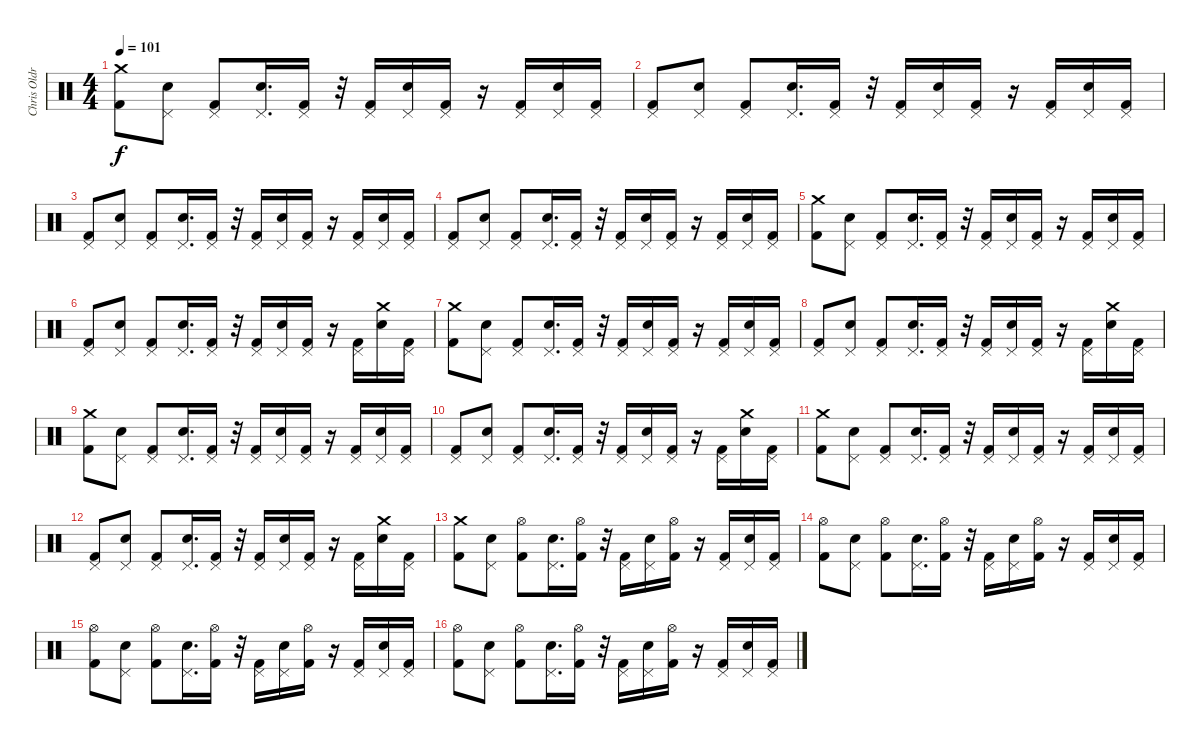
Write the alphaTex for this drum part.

\track ("Chris Oldroyd" "Chris Oldr") {instrument percussion}
\staff {score}
\articulation defaults
\ts (4 4)
\tempo 101
\clef neutral
\ks c
("Crash medium (hit)" "Kick (hit) 2").8{dy f} ("Pedal Hi-Hat (hit)" "Snare (hit) 2").8 ("Pedal Hi-Hat (hit)" "Kick (hit) 2").8 ("Pedal Hi-Hat (hit)" "Snare (hit) 2").16{d} ("Pedal Hi-Hat (hit)" "Kick (hit) 2").16 r.32 ("Pedal Hi-Hat (hit)" "Kick (hit) 2").16 ("Pedal Hi-Hat (hit)" "Snare (hit) 2").16 ("Pedal Hi-Hat (hit)" "Kick (hit) 2").16 r.16 ("Pedal Hi-Hat (hit)" "Kick (hit) 2").16 ("Pedal Hi-Hat (hit)" "Snare (hit) 2").16 ("Pedal Hi-Hat (hit)" "Kick (hit) 2").16 |
("Pedal Hi-Hat (hit)" "Kick (hit) 2").8 ("Pedal Hi-Hat (hit)" "Snare (hit) 2").8 ("Pedal Hi-Hat (hit)" "Kick (hit) 2").8 ("Pedal Hi-Hat (hit)" "Snare (hit) 2").16{d} ("Pedal Hi-Hat (hit)" "Kick (hit) 2").16 r.32 ("Pedal Hi-Hat (hit)" "Kick (hit) 2").16 ("Pedal Hi-Hat (hit)" "Snare (hit) 2").16 ("Pedal Hi-Hat (hit)" "Kick (hit) 2").16 r.16 ("Pedal Hi-Hat (hit)" "Kick (hit) 2").16 ("Pedal Hi-Hat (hit)" "Snare (hit) 2").16 ("Pedal Hi-Hat (hit)" "Kick (hit) 2").16 |
("Pedal Hi-Hat (hit)" "Kick (hit) 2").8 ("Pedal Hi-Hat (hit)" "Snare (hit) 2").8 ("Pedal Hi-Hat (hit)" "Kick (hit) 2").8 ("Pedal Hi-Hat (hit)" "Snare (hit) 2").16{d} ("Pedal Hi-Hat (hit)" "Kick (hit) 2").16 r.32 ("Pedal Hi-Hat (hit)" "Kick (hit) 2").16 ("Pedal Hi-Hat (hit)" "Snare (hit) 2").16 ("Pedal Hi-Hat (hit)" "Kick (hit) 2").16 r.16 ("Pedal Hi-Hat (hit)" "Kick (hit) 2").16 ("Pedal Hi-Hat (hit)" "Snare (hit) 2").16 ("Pedal Hi-Hat (hit)" "Kick (hit) 2").16 |
("Pedal Hi-Hat (hit)" "Kick (hit) 2").8 ("Pedal Hi-Hat (hit)" "Snare (hit) 2").8 ("Pedal Hi-Hat (hit)" "Kick (hit) 2").8 ("Pedal Hi-Hat (hit)" "Snare (hit) 2").16{d} ("Pedal Hi-Hat (hit)" "Kick (hit) 2").16 r.32 ("Pedal Hi-Hat (hit)" "Kick (hit) 2").16 ("Pedal Hi-Hat (hit)" "Snare (hit) 2").16 ("Pedal Hi-Hat (hit)" "Kick (hit) 2").16 r.16 ("Pedal Hi-Hat (hit)" "Kick (hit) 2").16 ("Pedal Hi-Hat (hit)" "Snare (hit) 2").16 ("Pedal Hi-Hat (hit)" "Kick (hit) 2").16 |
("Crash medium (hit)" "Kick (hit) 2").8 ("Pedal Hi-Hat (hit)" "Snare (hit) 2").8 ("Pedal Hi-Hat (hit)" "Kick (hit) 2").8 ("Pedal Hi-Hat (hit)" "Snare (hit) 2").16{d} ("Pedal Hi-Hat (hit)" "Kick (hit) 2").16 r.32 ("Pedal Hi-Hat (hit)" "Kick (hit) 2").16 ("Pedal Hi-Hat (hit)" "Snare (hit) 2").16 ("Pedal Hi-Hat (hit)" "Kick (hit) 2").16 r.16 ("Pedal Hi-Hat (hit)" "Kick (hit) 2").16 ("Pedal Hi-Hat (hit)" "Snare (hit) 2").16 ("Pedal Hi-Hat (hit)" "Kick (hit) 2").16 |
("Pedal Hi-Hat (hit)" "Kick (hit) 2").8 ("Pedal Hi-Hat (hit)" "Snare (hit) 2").8 ("Pedal Hi-Hat (hit)" "Kick (hit) 2").8 ("Pedal Hi-Hat (hit)" "Snare (hit) 2").16{d} ("Pedal Hi-Hat (hit)" "Kick (hit) 2").16 r.32 ("Pedal Hi-Hat (hit)" "Kick (hit) 2").16 ("Pedal Hi-Hat (hit)" "Snare (hit) 2").16 ("Pedal Hi-Hat (hit)" "Kick (hit) 2").16 r.16 ("Pedal Hi-Hat (hit)" "Kick (hit) 2").16 ("Crash medium (hit)" "Snare (hit) 2").16 ("Pedal Hi-Hat (hit)" "Kick (hit) 2").16 |
("Crash medium (hit)" "Kick (hit) 2").8 ("Pedal Hi-Hat (hit)" "Snare (hit) 2").8 ("Pedal Hi-Hat (hit)" "Kick (hit) 2").8 ("Pedal Hi-Hat (hit)" "Snare (hit) 2").16{d} ("Pedal Hi-Hat (hit)" "Kick (hit) 2").16 r.32 ("Pedal Hi-Hat (hit)" "Kick (hit) 2").16 ("Pedal Hi-Hat (hit)" "Snare (hit) 2").16 ("Pedal Hi-Hat (hit)" "Kick (hit) 2").16 r.16 ("Pedal Hi-Hat (hit)" "Kick (hit) 2").16 ("Pedal Hi-Hat (hit)" "Snare (hit) 2").16 ("Pedal Hi-Hat (hit)" "Kick (hit) 2").16 |
("Pedal Hi-Hat (hit)" "Kick (hit) 2").8 ("Pedal Hi-Hat (hit)" "Snare (hit) 2").8 ("Pedal Hi-Hat (hit)" "Kick (hit) 2").8 ("Pedal Hi-Hat (hit)" "Snare (hit) 2").16{d} ("Pedal Hi-Hat (hit)" "Kick (hit) 2").16 r.32 ("Pedal Hi-Hat (hit)" "Kick (hit) 2").16 ("Pedal Hi-Hat (hit)" "Snare (hit) 2").16 ("Pedal Hi-Hat (hit)" "Kick (hit) 2").16 r.16 ("Pedal Hi-Hat (hit)" "Kick (hit) 2").16 ("Crash medium (hit)" "Snare (hit) 2").16 ("Pedal Hi-Hat (hit)" "Kick (hit) 2").16 |
("Crash medium (hit)" "Kick (hit) 2").8 ("Pedal Hi-Hat (hit)" "Snare (hit) 2").8 ("Pedal Hi-Hat (hit)" "Kick (hit) 2").8 ("Pedal Hi-Hat (hit)" "Snare (hit) 2").16{d} ("Pedal Hi-Hat (hit)" "Kick (hit) 2").16 r.32 ("Pedal Hi-Hat (hit)" "Kick (hit) 2").16 ("Pedal Hi-Hat (hit)" "Snare (hit) 2").16 ("Pedal Hi-Hat (hit)" "Kick (hit) 2").16 r.16 ("Pedal Hi-Hat (hit)" "Kick (hit) 2").16 ("Pedal Hi-Hat (hit)" "Snare (hit) 2").16 ("Pedal Hi-Hat (hit)" "Kick (hit) 2").16 |
("Pedal Hi-Hat (hit)" "Kick (hit) 2").8 ("Pedal Hi-Hat (hit)" "Snare (hit) 2").8 ("Pedal Hi-Hat (hit)" "Kick (hit) 2").8 ("Pedal Hi-Hat (hit)" "Snare (hit) 2").16{d} ("Pedal Hi-Hat (hit)" "Kick (hit) 2").16 r.32 ("Pedal Hi-Hat (hit)" "Kick (hit) 2").16 ("Pedal Hi-Hat (hit)" "Snare (hit) 2").16 ("Pedal Hi-Hat (hit)" "Kick (hit) 2").16 r.16 ("Pedal Hi-Hat (hit)" "Kick (hit) 2").16 ("Crash medium (hit)" "Snare (hit) 2").16 ("Pedal Hi-Hat (hit)" "Kick (hit) 2").16 |
("Crash medium (hit)" "Kick (hit) 2").8 ("Pedal Hi-Hat (hit)" "Snare (hit) 2").8 ("Pedal Hi-Hat (hit)" "Kick (hit) 2").8 ("Pedal Hi-Hat (hit)" "Snare (hit) 2").16{d} ("Pedal Hi-Hat (hit)" "Kick (hit) 2").16 r.32 ("Pedal Hi-Hat (hit)" "Kick (hit) 2").16 ("Pedal Hi-Hat (hit)" "Snare (hit) 2").16 ("Pedal Hi-Hat (hit)" "Kick (hit) 2").16 r.16 ("Pedal Hi-Hat (hit)" "Kick (hit) 2").16 ("Pedal Hi-Hat (hit)" "Snare (hit) 2").16 ("Pedal Hi-Hat (hit)" "Kick (hit) 2").16 |
("Pedal Hi-Hat (hit)" "Kick (hit) 2").8 ("Pedal Hi-Hat (hit)" "Snare (hit) 2").8 ("Pedal Hi-Hat (hit)" "Kick (hit) 2").8 ("Pedal Hi-Hat (hit)" "Snare (hit) 2").16{d} ("Pedal Hi-Hat (hit)" "Kick (hit) 2").16 r.32 ("Pedal Hi-Hat (hit)" "Kick (hit) 2").16 ("Pedal Hi-Hat (hit)" "Snare (hit) 2").16 ("Pedal Hi-Hat (hit)" "Kick (hit) 2").16 r.16 ("Pedal Hi-Hat (hit)" "Kick (hit) 2").16 ("Crash medium (hit)" "Snare (hit) 2").16 ("Pedal Hi-Hat (hit)" "Kick (hit) 2").16 |
("Crash medium (hit)" "Kick (hit) 2").8 ("Pedal Hi-Hat (hit)" "Snare (hit) 2").8 ("Hi-Hat (open)" "Kick (hit) 2").8 ("Pedal Hi-Hat (hit)" "Snare (hit) 2").16{d} ("Hi-Hat (open)" "Kick (hit) 2").16 r.32 ("Pedal Hi-Hat (hit)" "Kick (hit) 2").16 ("Pedal Hi-Hat (hit)" "Snare (hit) 2").16 ("Hi-Hat (open)" "Kick (hit) 2").16 r.16 ("Pedal Hi-Hat (hit)" "Kick (hit) 2").16 ("Pedal Hi-Hat (hit)" "Snare (hit) 2").16 ("Pedal Hi-Hat (hit)" "Kick (hit) 2").16 |
("Hi-Hat (open)" "Kick (hit) 2").8 ("Pedal Hi-Hat (hit)" "Snare (hit) 2").8 ("Hi-Hat (open)" "Kick (hit) 2").8 ("Pedal Hi-Hat (hit)" "Snare (hit) 2").16{d} ("Hi-Hat (open)" "Kick (hit) 2").16 r.32 ("Pedal Hi-Hat (hit)" "Kick (hit) 2").16 ("Pedal Hi-Hat (hit)" "Snare (hit) 2").16 ("Hi-Hat (open)" "Kick (hit) 2").16 r.16 ("Pedal Hi-Hat (hit)" "Kick (hit) 2").16 ("Pedal Hi-Hat (hit)" "Snare (hit) 2").16 ("Pedal Hi-Hat (hit)" "Kick (hit) 2").16 |
("Hi-Hat (open)" "Kick (hit) 2").8 ("Pedal Hi-Hat (hit)" "Snare (hit) 2").8 ("Hi-Hat (open)" "Kick (hit) 2").8 ("Pedal Hi-Hat (hit)" "Snare (hit) 2").16{d} ("Hi-Hat (open)" "Kick (hit) 2").16 r.32 ("Pedal Hi-Hat (hit)" "Kick (hit) 2").16 ("Pedal Hi-Hat (hit)" "Snare (hit) 2").16 ("Hi-Hat (open)" "Kick (hit) 2").16 r.16 ("Pedal Hi-Hat (hit)" "Kick (hit) 2").16 ("Pedal Hi-Hat (hit)" "Snare (hit) 2").16 ("Pedal Hi-Hat (hit)" "Kick (hit) 2").16 |
("Hi-Hat (open)" "Kick (hit) 2").8 ("Pedal Hi-Hat (hit)" "Snare (hit) 2").8 ("Hi-Hat (open)" "Kick (hit) 2").8 ("Pedal Hi-Hat (hit)" "Snare (hit) 2").16{d} ("Hi-Hat (open)" "Kick (hit) 2").16 r.32 ("Pedal Hi-Hat (hit)" "Kick (hit) 2").16 ("Pedal Hi-Hat (hit)" "Snare (hit) 2").16 ("Hi-Hat (open)" "Kick (hit) 2").16 r.16 ("Pedal Hi-Hat (hit)" "Kick (hit) 2").16 ("Pedal Hi-Hat (hit)" "Snare (hit) 2").16 ("Pedal Hi-Hat (hit)" "Kick (hit) 2").16
